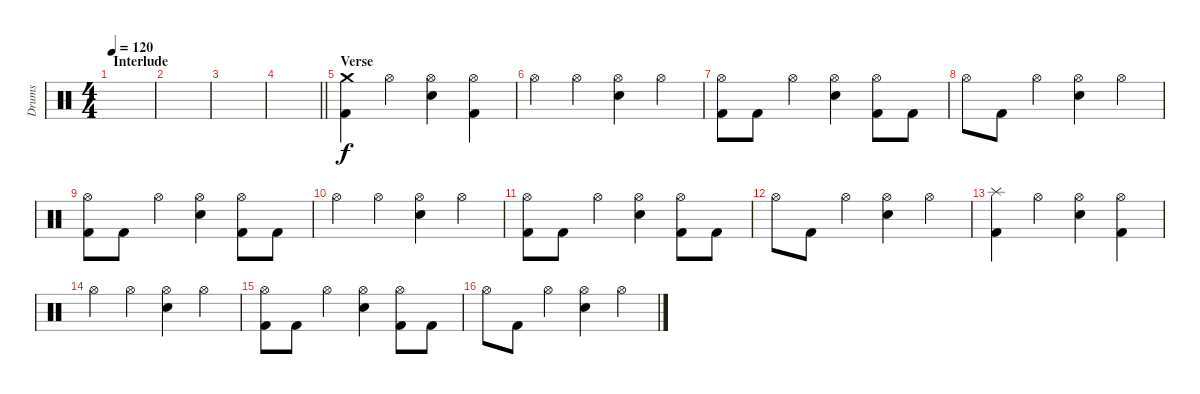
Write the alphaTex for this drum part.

\track ("Drums" "Drums") {instrument percussion}
\staff {score}
\articulation defaults
\ts (4 4)
\section ("" "Interlude")
\tempo 120
\clef neutral
\ks c
|
|
|
\barLineRight lightlight
|
\section ("" "Verse")
("Crash medium (hit)" "Kick (hit) 2").4 "Hi-Hat (open)".4 ("Hi-Hat (open)" "Snare (hit) 2").4 ("Hi-Hat (open)" "Kick (hit) 2").4 |
"Hi-Hat (open)".4 "Hi-Hat (open)".4 ("Hi-Hat (open)" "Snare (hit) 2").4 "Hi-Hat (open)".4 |
("Hi-Hat (open)" "Kick (hit) 2").8 "Kick (hit) 2".8 "Hi-Hat (open)".4 ("Hi-Hat (open)" "Snare (hit) 2").4 ("Hi-Hat (open)" "Kick (hit) 2").8 "Kick (hit) 2".8 |
"Hi-Hat (open)".8 "Kick (hit) 2".8 "Hi-Hat (open)".4 ("Hi-Hat (open)" "Snare (hit) 2").4 "Hi-Hat (open)".4 |
("Hi-Hat (open)" "Kick (hit) 2").8 "Kick (hit) 2".8 "Hi-Hat (open)".4 ("Hi-Hat (open)" "Snare (hit) 2").4 ("Hi-Hat (open)" "Kick (hit) 2").8 "Kick (hit) 2".8 |
"Hi-Hat (open)".4 "Hi-Hat (open)".4 ("Hi-Hat (open)" "Snare (hit) 2").4 "Hi-Hat (open)".4 |
("Hi-Hat (open)" "Kick (hit) 2").8 "Kick (hit) 2".8 "Hi-Hat (open)".4 ("Hi-Hat (open)" "Snare (hit) 2").4 ("Hi-Hat (open)" "Kick (hit) 2").8 "Kick (hit) 2".8 |
"Hi-Hat (open)".8 "Kick (hit) 2".8 "Hi-Hat (open)".4 ("Hi-Hat (open)" "Snare (hit) 2").4 "Hi-Hat (open)".4 |
("Splash (hit)" "Kick (hit) 2").4 "Hi-Hat (open)".4 ("Hi-Hat (open)" "Snare (hit) 2").4 ("Hi-Hat (open)" "Kick (hit) 2").4 |
"Hi-Hat (open)".4 "Hi-Hat (open)".4 ("Hi-Hat (open)" "Snare (hit) 2").4 "Hi-Hat (open)".4 |
("Hi-Hat (open)" "Kick (hit) 2").8 "Kick (hit) 2".8 "Hi-Hat (open)".4 ("Hi-Hat (open)" "Snare (hit) 2").4 ("Hi-Hat (open)" "Kick (hit) 2").8 "Kick (hit) 2".8 |
"Hi-Hat (open)".8 "Kick (hit) 2".8 "Hi-Hat (open)".4 ("Hi-Hat (open)" "Snare (hit) 2").4 "Hi-Hat (open)".4
